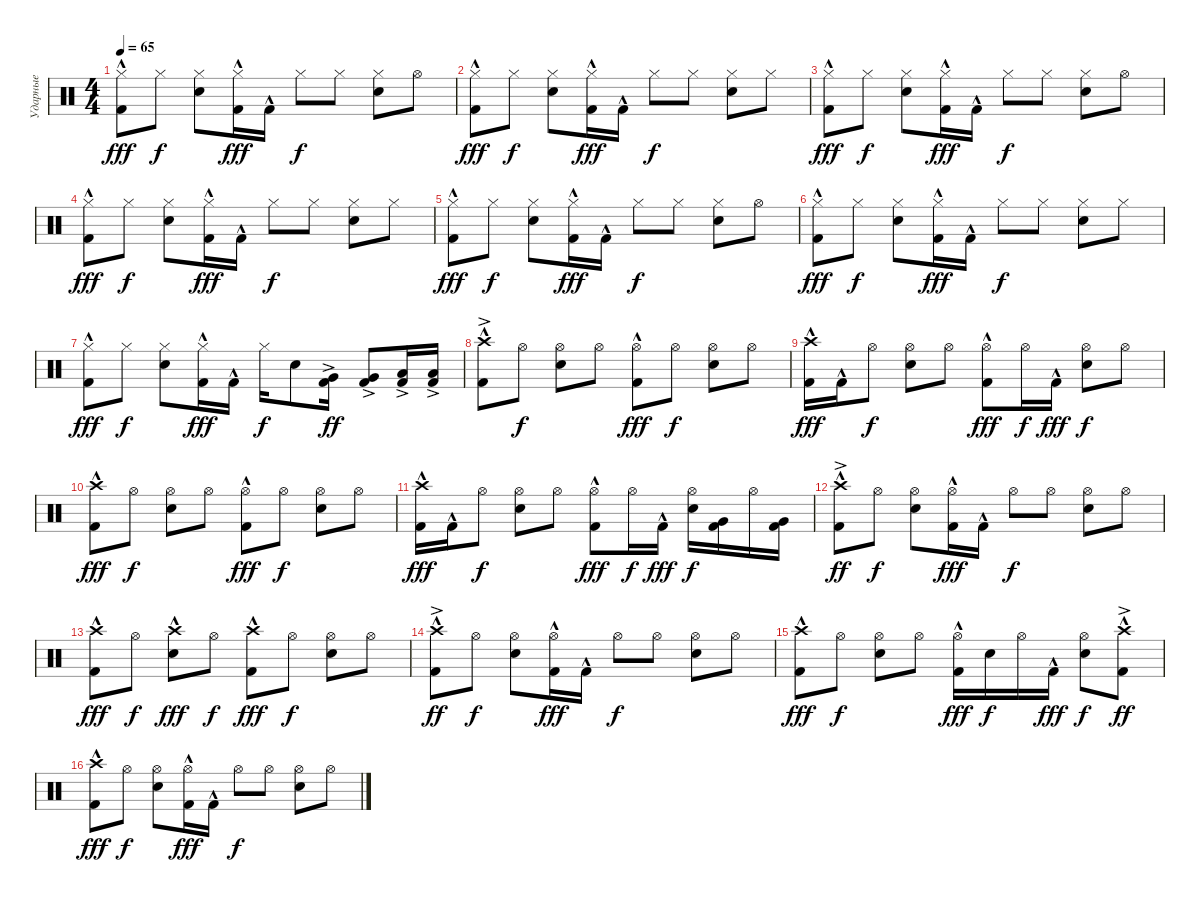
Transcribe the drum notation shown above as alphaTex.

\track ("Ударные" "Ударные") {instrument percussion}
\staff {score}
\articulation defaults
\ts (4 4)
\tempo 65
\clef neutral
\ks c
("Kick (hit) 2"{hac} "Hi-Hat (closed)").8{dy fff} "Hi-Hat (closed)".8{dy f} ("Snare (hit) 2" "Hi-Hat (closed)").8 ("Kick (hit) 2"{hac} "Hi-Hat (closed)").16{dy fff} "Kick (hit) 2"{hac}.16 "Hi-Hat (closed)".8{dy f} "Hi-Hat (closed)".8 ("Snare (hit) 2" "Hi-Hat (closed)").8 "Hi-Hat (open)".8 |
("Kick (hit) 2"{hac} "Hi-Hat (closed)").8{dy fff} "Hi-Hat (closed)".8{dy f} ("Snare (hit) 2" "Hi-Hat (closed)").8 ("Kick (hit) 2"{hac} "Hi-Hat (closed)").16{dy fff} "Kick (hit) 2"{hac}.16 "Hi-Hat (closed)".8{dy f} "Hi-Hat (closed)".8 ("Snare (hit) 2" "Hi-Hat (closed)").8 "Hi-Hat (closed)".8 |
("Kick (hit) 2"{hac} "Hi-Hat (closed)").8{dy fff} "Hi-Hat (closed)".8{dy f} ("Snare (hit) 2" "Hi-Hat (closed)").8 ("Kick (hit) 2"{hac} "Hi-Hat (closed)").16{dy fff} "Kick (hit) 2"{hac}.16 "Hi-Hat (closed)".8{dy f} "Hi-Hat (closed)".8 ("Snare (hit) 2" "Hi-Hat (closed)").8 "Hi-Hat (open)".8 |
("Kick (hit) 2"{hac} "Hi-Hat (closed)").8{dy fff} "Hi-Hat (closed)".8{dy f} ("Snare (hit) 2" "Hi-Hat (closed)").8 ("Kick (hit) 2"{hac} "Hi-Hat (closed)").16{dy fff} "Kick (hit) 2"{hac}.16 "Hi-Hat (closed)".8{dy f} "Hi-Hat (closed)".8 ("Snare (hit) 2" "Hi-Hat (closed)").8 "Hi-Hat (closed)".8 |
("Kick (hit) 2"{hac} "Hi-Hat (closed)").8{dy fff} "Hi-Hat (closed)".8{dy f} ("Snare (hit) 2" "Hi-Hat (closed)").8 ("Kick (hit) 2"{hac} "Hi-Hat (closed)").16{dy fff} "Kick (hit) 2"{hac}.16 "Hi-Hat (closed)".8{dy f} "Hi-Hat (closed)".8 ("Snare (hit) 2" "Hi-Hat (closed)").8 "Hi-Hat (open)".8 |
("Kick (hit) 2"{hac} "Hi-Hat (closed)").8{dy fff} "Hi-Hat (closed)".8{dy f} ("Snare (hit) 2" "Hi-Hat (closed)").8 ("Kick (hit) 2"{hac} "Hi-Hat (closed)").16{dy fff} "Kick (hit) 2"{hac}.16 "Hi-Hat (closed)".8{dy f} "Hi-Hat (closed)".8 ("Snare (hit) 2" "Hi-Hat (closed)").8 "Hi-Hat (closed)".8 |
("Kick (hit) 2"{hac} "Hi-Hat (closed)").8{dy fff} "Hi-Hat (closed)".8{dy f} ("Snare (hit) 2" "Hi-Hat (closed)").8 ("Kick (hit) 2"{hac} "Hi-Hat (closed)").16{dy fff} "Kick (hit) 2"{hac}.16 "Hi-Hat (closed)".16{dy f} "Snare (hit) 2".8 ("Kick (hit) 2" "Very Low Tom (hit)"{ac}).16{dy ff} ("Kick (hit) 2" "Very Low Tom (hit)"{ac}).8 ("Kick (hit) 2" "Low Floor Tom (hit)"{ac}).16 ("Kick (hit) 2" "Low Floor Tom (hit)"{ac}).16 |
("Kick (hit) 2"{hac} "Crash high (hit)"{ac}).8 "Hi-Hat (open)".8{dy f} ("Snare (hit) 2" "Hi-Hat (open)").8 "Hi-Hat (open)".8 ("Kick (hit) 2"{hac} "Hi-Hat (open)").8{dy fff} "Hi-Hat (open)".8{dy f} ("Snare (hit) 2" "Hi-Hat (open)").8 "Hi-Hat (open)".8 |
("Kick (hit) 2"{hac} "Crash high (hit)").16{dy fff} "Kick (hit) 2"{hac}.16 "Hi-Hat (open)".8{dy f} ("Snare (hit) 2" "Hi-Hat (open)").8 "Hi-Hat (open)".8 ("Kick (hit) 2"{hac} "Hi-Hat (open)").8{dy fff} "Hi-Hat (open)".16{dy f} "Kick (hit) 2"{hac}.16{dy fff} ("Snare (hit) 2" "Hi-Hat (open)").8{dy f} "Hi-Hat (open)".8 |
("Kick (hit) 2"{hac} "Crash high (hit)").8{dy fff} "Hi-Hat (open)".8{dy f} ("Snare (hit) 2" "Hi-Hat (open)").8 "Hi-Hat (open)".8 ("Kick (hit) 2"{hac} "Hi-Hat (open)").8{dy fff} "Hi-Hat (open)".8{dy f} ("Snare (hit) 2" "Hi-Hat (open)").8 "Hi-Hat (open)".8 |
("Kick (hit) 2"{hac} "Crash high (hit)").16{dy fff} "Kick (hit) 2"{hac}.16 "Hi-Hat (open)".8{dy f} ("Snare (hit) 2" "Hi-Hat (open)").8 "Hi-Hat (open)".8 ("Kick (hit) 2"{hac} "Hi-Hat (open)").8{dy fff} "Hi-Hat (open)".16{dy f} "Kick (hit) 2"{hac}.16{dy fff} ("Snare (hit) 2" "Hi-Hat (open)").16{dy f} ("Kick (hit) 2" "Very Low Tom (hit)").16 "Hi-Hat (open)".16 ("Kick (hit) 2" "Very Low Tom (hit)").16 |
("Kick (hit) 2"{hac} "Crash high (hit)"{ac}).8{dy ff} "Hi-Hat (open)".8{dy f} ("Snare (hit) 2" "Hi-Hat (open)").8 ("Kick (hit) 2"{hac} "Hi-Hat (open)").16{dy fff} "Kick (hit) 2"{hac}.16 "Hi-Hat (open)".8{dy f} "Hi-Hat (open)".8 ("Snare (hit) 2" "Hi-Hat (open)").8 "Hi-Hat (open)".8 |
("Kick (hit) 2"{hac} "Crash high (hit)"{hac}).8{dy fff} "Hi-Hat (open)".8{dy f} ("Snare (hit) 2" "Crash high (hit)"{hac}).8{dy fff} "Hi-Hat (open)".8{dy f} ("Kick (hit) 2"{hac} "Crash high (hit)"{hac}).8{dy fff} "Hi-Hat (open)".8{dy f} ("Snare (hit) 2" "Hi-Hat (open)").8 "Hi-Hat (open)".8 |
("Kick (hit) 2"{hac} "Crash high (hit)"{ac}).8{dy ff} "Hi-Hat (open)".8{dy f} ("Snare (hit) 2" "Hi-Hat (open)").8 ("Kick (hit) 2"{hac} "Hi-Hat (open)").16{dy fff} "Kick (hit) 2"{hac}.16 "Hi-Hat (open)".8{dy f} "Hi-Hat (open)".8 ("Snare (hit) 2" "Hi-Hat (open)").8 "Hi-Hat (open)".8 |
("Kick (hit) 2"{hac} "Crash high (hit)").8{dy fff} "Hi-Hat (open)".8{dy f} ("Snare (hit) 2" "Hi-Hat (open)").8 "Hi-Hat (open)".8 ("Kick (hit) 2"{hac} "Hi-Hat (open)").16{dy fff} "Snare (hit) 2".16{dy f} "Hi-Hat (open)".16 "Kick (hit) 2"{hac}.16{dy fff} ("Snare (hit) 2" "Hi-Hat (open)").8{dy f} ("Kick (hit) 2"{hac} "Crash high (hit)"{ac}).8{dy ff} |
("Kick (hit) 2"{hac} "Crash high (hit)"{hac}).8{dy fff} "Hi-Hat (open)".8{dy f} ("Snare (hit) 2" "Hi-Hat (open)").8 ("Kick (hit) 2"{hac} "Hi-Hat (open)").16{dy fff} "Kick (hit) 2"{hac}.16 "Hi-Hat (open)".8{dy f} "Hi-Hat (open)".8 ("Snare (hit) 2" "Hi-Hat (open)").8 "Hi-Hat (open)".8
